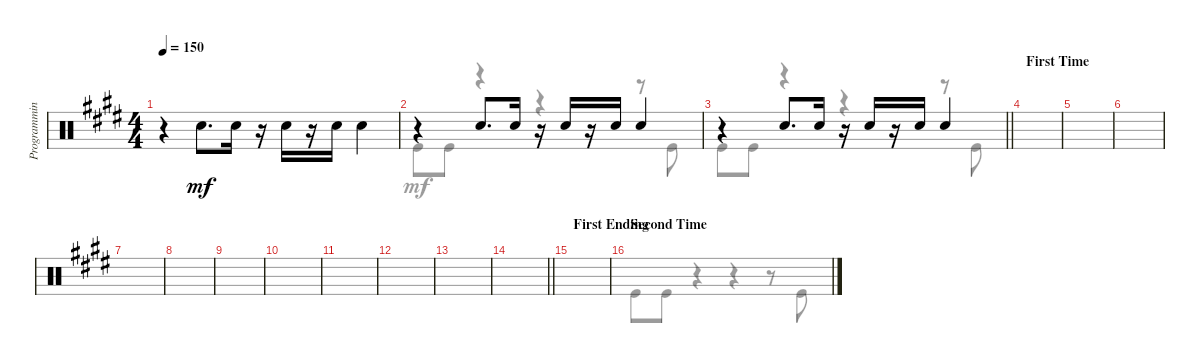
\track ("Programming" "Programmin") {instrument percussion}
\staff {score}
\articulation defaults
\voice
\ts (4 4)
\tempo 150
\clef neutral
\ks e
r.4{dy mf} "Snare (hit) 2".8{d} "Snare (hit) 2".16 r.16 "Snare (hit) 2".16 r.16 "Snare (hit) 2".16 "Snare (hit) 2".4 |
r.4 "Snare (hit) 2".8{d} "Snare (hit) 2".16 r.16 "Snare (hit) 2".16 r.16 "Snare (hit) 2".16 "Snare (hit) 2".4 |
\barLineRight lightlight
r.4 "Snare (hit) 2".8{d} "Snare (hit) 2".16 r.16 "Snare (hit) 2".16 r.16 "Snare (hit) 2".16 "Snare (hit) 2".4 |
\section ("" "First Time")
|
|
|
|
|
|
|
|
|
|
\barLineRight lightlight
|
\section ("" "First Ending")
|
\section ("" "Second Time")
\voice
\clef neutral
\ottava regular
\simile none
\ks e "Kick (hit)".8{dy mf} "Kick (hit)".8
r.4 r.4 r.8 "Kick (hit)".8 |
"Kick (hit)".8 "Kick (hit)".8 r.4 r.4 r.8 "Kick (hit)".8 |
\barLineRight lightlight "Kick (hit)".8 "Kick (hit)".8
r.4 r.4 r.8 "Kick (hit)".8 |
|
|
|
|
|
|
|
|
|
|
\barLineRight lightlight
|
|
